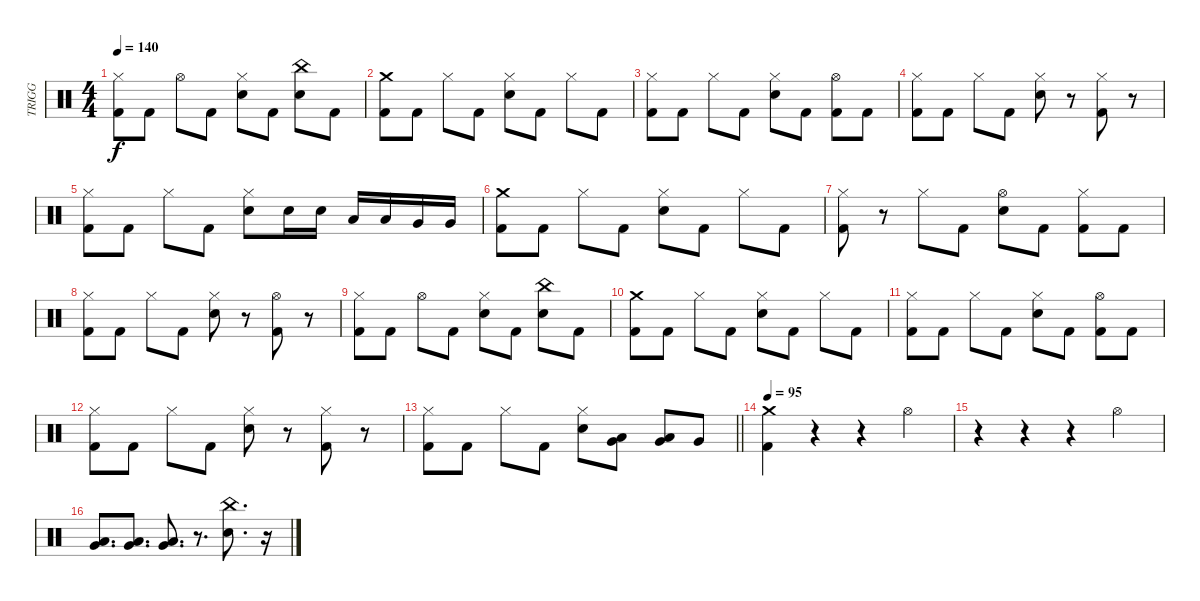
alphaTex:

\track ("TRIGG" "TRIGG") {instrument percussion}
\staff {score}
\articulation defaults
\ts (4 4)
\tempo 140
\clef neutral
\ks c
("Hi-Hat (closed)" "Kick (hit) 2").8{dy f} "Kick (hit) 2".8 "Hi-Hat (open)".8 "Kick (hit) 2".8 ("Hi-Hat (closed)" "Electric Snare (hit)").8 "Kick (hit) 2".8 ("China (hit)" "Electric Snare (hit)").8 "Kick (hit) 2".8 |
("Crash medium (hit)" "Kick (hit) 2").8 "Kick (hit) 2".8 "Hi-Hat (closed)".8 "Kick (hit) 2".8 ("Hi-Hat (closed)" "Electric Snare (hit)").8 "Kick (hit) 2".8 "Hi-Hat (closed)".8 "Kick (hit) 2".8 |
("Hi-Hat (closed)" "Kick (hit) 2").8 "Kick (hit) 2".8 "Hi-Hat (closed)".8 "Kick (hit) 2".8 ("Hi-Hat (closed)" "Electric Snare (hit)").8 "Kick (hit) 2".8 ("Hi-Hat (open)" "Kick (hit) 2").8 "Kick (hit) 2".8 |
("Hi-Hat (closed)" "Kick (hit) 2").8 "Kick (hit) 2".8 "Hi-Hat (closed)".8 "Kick (hit) 2".8 ("Hi-Hat (closed)" "Electric Snare (hit)").8 r.8 ("Hi-Hat (closed)" "Kick (hit) 2").8 r.8 |
("Hi-Hat (closed)" "Kick (hit) 2").8 "Kick (hit) 2".8 "Hi-Hat (closed)".8 "Kick (hit) 2".8 ("Hi-Hat (closed)" "Electric Snare (hit)").8 "Electric Snare (hit)".16 "Electric Snare (hit)".16 "Low Tom (hit)".16 "Low Tom (hit)".16 "Very Low Tom (hit)".16 "Very Low Tom (hit)".16 |
("Crash medium (hit)" "Kick (hit) 2").8 "Kick (hit) 2".8 "Hi-Hat (closed)".8 "Kick (hit) 2".8 ("Hi-Hat (closed)" "Electric Snare (hit)").8 "Kick (hit) 2".8 "Hi-Hat (closed)".8 "Kick (hit) 2".8 |
("Hi-Hat (closed)" "Kick (hit) 2").8 r.8 "Hi-Hat (closed)".8 "Kick (hit) 2".8 ("Hi-Hat (open)" "Electric Snare (hit)").8 "Kick (hit) 2".8 ("Hi-Hat (closed)" "Kick (hit) 2").8 "Kick (hit) 2".8 |
("Hi-Hat (closed)" "Kick (hit) 2").8 "Kick (hit) 2".8 "Hi-Hat (closed)".8 "Kick (hit) 2".8 ("Hi-Hat (closed)" "Electric Snare (hit)").8 r.8 ("Hi-Hat (open)" "Kick (hit) 2").8 r.8 |
("Hi-Hat (closed)" "Kick (hit) 2").8 "Kick (hit) 2".8 "Hi-Hat (open)".8 "Kick (hit) 2".8 ("Hi-Hat (closed)" "Electric Snare (hit)").8 "Kick (hit) 2".8 ("China (hit)" "Electric Snare (hit)").8 "Kick (hit) 2".8 |
("Crash medium (hit)" "Kick (hit) 2").8 "Kick (hit) 2".8 "Hi-Hat (closed)".8 "Kick (hit) 2".8 ("Hi-Hat (closed)" "Electric Snare (hit)").8 "Kick (hit) 2".8 "Hi-Hat (closed)".8 "Kick (hit) 2".8 |
("Hi-Hat (closed)" "Kick (hit) 2").8 "Kick (hit) 2".8 "Hi-Hat (closed)".8 "Kick (hit) 2".8 ("Hi-Hat (closed)" "Electric Snare (hit)").8 "Kick (hit) 2".8 ("Hi-Hat (open)" "Kick (hit) 2").8 "Kick (hit) 2".8 |
("Hi-Hat (closed)" "Kick (hit) 2").8 "Kick (hit) 2".8 "Hi-Hat (closed)".8 "Kick (hit) 2".8 ("Hi-Hat (closed)" "Electric Snare (hit)").8 r.8 ("Hi-Hat (closed)" "Kick (hit) 2").8 r.8 |
\barLineRight lightlight
("Hi-Hat (closed)" "Kick (hit) 2").8 "Kick (hit) 2".8 "Hi-Hat (closed)".8 "Kick (hit) 2".8 ("Hi-Hat (closed)" "Electric Snare (hit)").8 ("Low Tom (hit)" "Very Low Tom (hit)").8 ("Low Tom (hit)" "Very Low Tom (hit)").8 "Very Low Tom (hit)".8 |
\tempo 95
("Crash medium (hit)" "Kick (hit) 2").4 r.4 r.4 "Hi-Hat (open)".4 |
r.4 r.4 r.4 "Hi-Hat (open)".4 |
("Very Low Tom (hit)" "Low Floor Tom (hit)").8{d} ("Very Low Tom (hit)" "Low Floor Tom (hit)").8{d} ("Very Low Tom (hit)" "Low Floor Tom (hit)").8{d} r.8{d} ("Electric Snare (hit)" "China (hit)").8{d} r.16
